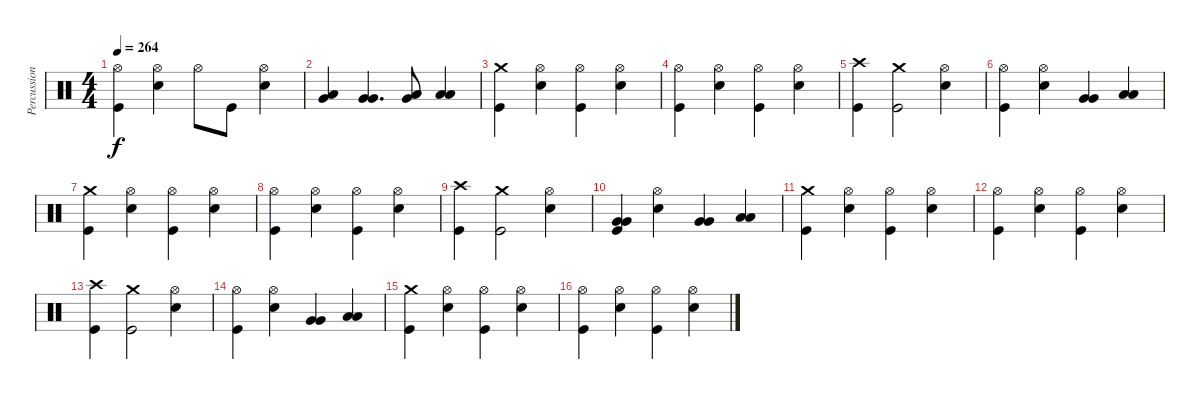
\track ("Percussion" "Percussion") {instrument percussion}
\staff {score}
\articulation defaults
\ts (4 4)
\tempo 264
\clef neutral
\ks c
("Hi-Hat (open)" "Kick (hit)").4{dy f} ("Hi-Hat (open)" "Snare (hit) 2").4 "Hi-Hat (open)".8 "Kick (hit)".8 ("Hi-Hat (open)" "Snare (hit) 2").4 |
("Low Tom (hit)" "Very Low Tom (hit)").4 ("Very Low Tom (hit)" "Very Low Tom (hit)").4{d} ("Low Floor Tom (hit)" "Very Low Tom (hit)").8 ("Low Floor Tom (hit)" "Low Floor Tom (hit)").4 |
("Crash medium (hit)" "Kick (hit)").4 ("Hi-Hat (open)" "Snare (hit) 2").4 ("Hi-Hat (open)" "Kick (hit)").4 ("Hi-Hat (open)" "Snare (hit) 2").4 |
("Hi-Hat (open)" "Kick (hit)").4 ("Hi-Hat (open)" "Snare (hit) 2").4 ("Hi-Hat (open)" "Kick (hit)").4 ("Hi-Hat (open)" "Snare (hit) 2").4 |
("Crash high (hit)" "Kick (hit)").4 ("Crash medium (hit)" "Kick (hit)").2 ("Hi-Hat (open)" "Snare (hit) 2").4 |
("Hi-Hat (open)" "Kick (hit)").4 ("Hi-Hat (open)" "Snare (hit) 2").4 ("Very Low Tom (hit)" "Very Low Tom (hit)").4 ("Low Floor Tom (hit)" "Low Floor Tom (hit)").4 |
("Crash medium (hit)" "Kick (hit)").4 ("Hi-Hat (open)" "Snare (hit) 2").4 ("Hi-Hat (open)" "Kick (hit)").4 ("Hi-Hat (open)" "Snare (hit) 2").4 |
("Hi-Hat (open)" "Kick (hit)").4 ("Hi-Hat (open)" "Snare (hit) 2").4 ("Hi-Hat (open)" "Kick (hit)").4 ("Hi-Hat (open)" "Snare (hit) 2").4 |
("Crash high (hit)" "Kick (hit)").4 ("Crash medium (hit)" "Kick (hit)").2 ("Hi-Hat (open)" "Snare (hit) 2").4 |
("Very Low Tom (hit)" "Very Low Tom (hit)" "Kick (hit)").4 ("Hi-Hat (open)" "Snare (hit) 2").4 ("Very Low Tom (hit)" "Very Low Tom (hit)").4 ("Low Floor Tom (hit)" "Low Floor Tom (hit)").4 |
("Crash medium (hit)" "Kick (hit)").4 ("Hi-Hat (open)" "Snare (hit) 2").4 ("Hi-Hat (open)" "Kick (hit)").4 ("Hi-Hat (open)" "Snare (hit) 2").4 |
("Hi-Hat (open)" "Kick (hit)").4 ("Hi-Hat (open)" "Snare (hit) 2").4 ("Hi-Hat (open)" "Kick (hit)").4 ("Hi-Hat (open)" "Snare (hit) 2").4 |
("Crash high (hit)" "Kick (hit)").4 ("Crash medium (hit)" "Kick (hit)").2 ("Hi-Hat (open)" "Snare (hit) 2").4 |
("Hi-Hat (open)" "Kick (hit)").4 ("Hi-Hat (open)" "Snare (hit) 2").4 ("Very Low Tom (hit)" "Very Low Tom (hit)").4 ("Low Floor Tom (hit)" "Low Floor Tom (hit)").4 |
("Crash medium (hit)" "Kick (hit)").4 ("Hi-Hat (open)" "Snare (hit) 2").4 ("Hi-Hat (open)" "Kick (hit)").4 ("Hi-Hat (open)" "Snare (hit) 2").4 |
("Hi-Hat (open)" "Kick (hit)").4 ("Hi-Hat (open)" "Snare (hit) 2").4 ("Hi-Hat (open)" "Kick (hit)").4 ("Hi-Hat (open)" "Snare (hit) 2").4
